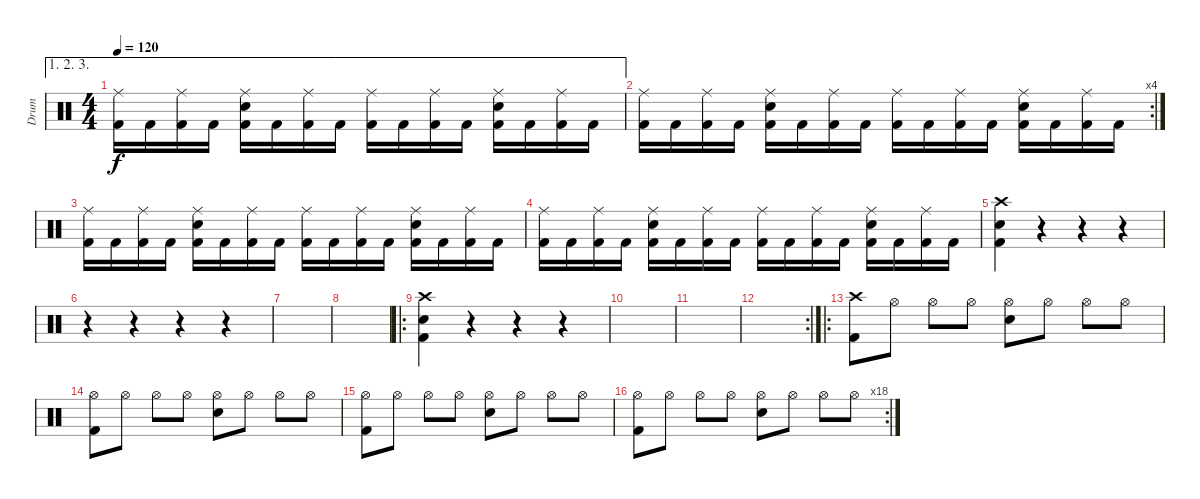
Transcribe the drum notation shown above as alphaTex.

\track ("Drum" "Drum") {instrument percussion}
\staff {score}
\articulation defaults
\ae (1 2 3)
\ts (4 4)
\tempo 120
\clef neutral
\ks c
("Ride (middle)" "Kick (hit) 2").16{dy f} "Kick (hit) 2".16 ("Ride (middle)" "Kick (hit) 2").16 "Kick (hit) 2".16 ("Ride (middle)" "Electric Snare (hit)" "Kick (hit) 2").16 "Kick (hit) 2".16 ("Ride (middle)" "Kick (hit) 2").16 "Kick (hit) 2".16 ("Ride (middle)" "Kick (hit) 2").16 "Kick (hit) 2".16 ("Ride (middle)" "Kick (hit) 2").16 "Kick (hit) 2".16 ("Ride (middle)" "Electric Snare (hit)" "Kick (hit) 2").16 "Kick (hit) 2".16 ("Ride (middle)" "Kick (hit) 2").16 "Kick (hit) 2".16 |
\rc 4
("Ride (middle)" "Kick (hit) 2").16 "Kick (hit) 2".16 ("Ride (middle)" "Kick (hit) 2").16 "Kick (hit) 2".16 ("Ride (middle)" "Electric Snare (hit)" "Kick (hit) 2").16 "Kick (hit) 2".16 ("Ride (middle)" "Kick (hit) 2").16 "Kick (hit) 2".16 ("Ride (middle)" "Kick (hit) 2").16 "Kick (hit) 2".16 ("Ride (middle)" "Kick (hit) 2").16 "Kick (hit) 2".16 ("Ride (middle)" "Electric Snare (hit)" "Kick (hit) 2").16 "Kick (hit) 2".16 ("Ride (middle)" "Kick (hit) 2").16 "Kick (hit) 2".16 |
("Ride (middle)" "Kick (hit) 2").16 "Kick (hit) 2".16 ("Ride (middle)" "Kick (hit) 2").16 "Kick (hit) 2".16 ("Ride (middle)" "Electric Snare (hit)" "Kick (hit) 2").16 "Kick (hit) 2".16 ("Ride (middle)" "Kick (hit) 2").16 "Kick (hit) 2".16 ("Ride (middle)" "Kick (hit) 2").16 "Kick (hit) 2".16 ("Ride (middle)" "Kick (hit) 2").16 "Kick (hit) 2".16 ("Ride (middle)" "Electric Snare (hit)" "Kick (hit) 2").16 "Kick (hit) 2".16 ("Ride (middle)" "Kick (hit) 2").16 "Kick (hit) 2".16 |
("Ride (middle)" "Kick (hit) 2").16 "Kick (hit) 2".16 ("Ride (middle)" "Kick (hit) 2").16 "Kick (hit) 2".16 ("Ride (middle)" "Electric Snare (hit)" "Kick (hit) 2").16 "Kick (hit) 2".16 ("Ride (middle)" "Kick (hit) 2").16 "Kick (hit) 2".16 ("Ride (middle)" "Kick (hit) 2").16 "Kick (hit) 2".16 ("Ride (middle)" "Kick (hit) 2").16 "Kick (hit) 2".16 ("Ride (middle)" "Electric Snare (hit)" "Kick (hit) 2").16 "Kick (hit) 2".16 ("Ride (middle)" "Kick (hit) 2").16 "Kick (hit) 2".16 |
("Crash high (hit)" "Electric Snare (hit)" "Kick (hit) 2").4 r.4 r.4 r.4 |
r.4 r.4 r.4 r.4 |
|
|
\ro
("Crash high (hit)" "Electric Snare (hit)" "Kick (hit) 2").4 r.4 r.4 r.4 |
|
|
\rc 2
|
\ro
("Crash high (hit)" "Kick (hit) 2").8 "Hi-Hat (open)".8 "Hi-Hat (open)".8 "Hi-Hat (open)".8 ("Hi-Hat (open)" "Electric Snare (hit)").8 "Hi-Hat (open)".8 "Hi-Hat (open)".8 "Hi-Hat (open)".8 |
("Hi-Hat (open)" "Kick (hit) 2").8 "Hi-Hat (open)".8 "Hi-Hat (open)".8 "Hi-Hat (open)".8 ("Hi-Hat (open)" "Electric Snare (hit)").8 "Hi-Hat (open)".8 "Hi-Hat (open)".8 "Hi-Hat (open)".8 |
("Hi-Hat (open)" "Kick (hit) 2").8 "Hi-Hat (open)".8 "Hi-Hat (open)".8 "Hi-Hat (open)".8 ("Hi-Hat (open)" "Electric Snare (hit)").8 "Hi-Hat (open)".8 "Hi-Hat (open)".8 "Hi-Hat (open)".8 |
\rc 18
("Hi-Hat (open)" "Kick (hit) 2").8 "Hi-Hat (open)".8 "Hi-Hat (open)".8 "Hi-Hat (open)".8 ("Hi-Hat (open)" "Electric Snare (hit)").8 "Hi-Hat (open)".8 "Hi-Hat (open)".8 "Hi-Hat (open)".8
